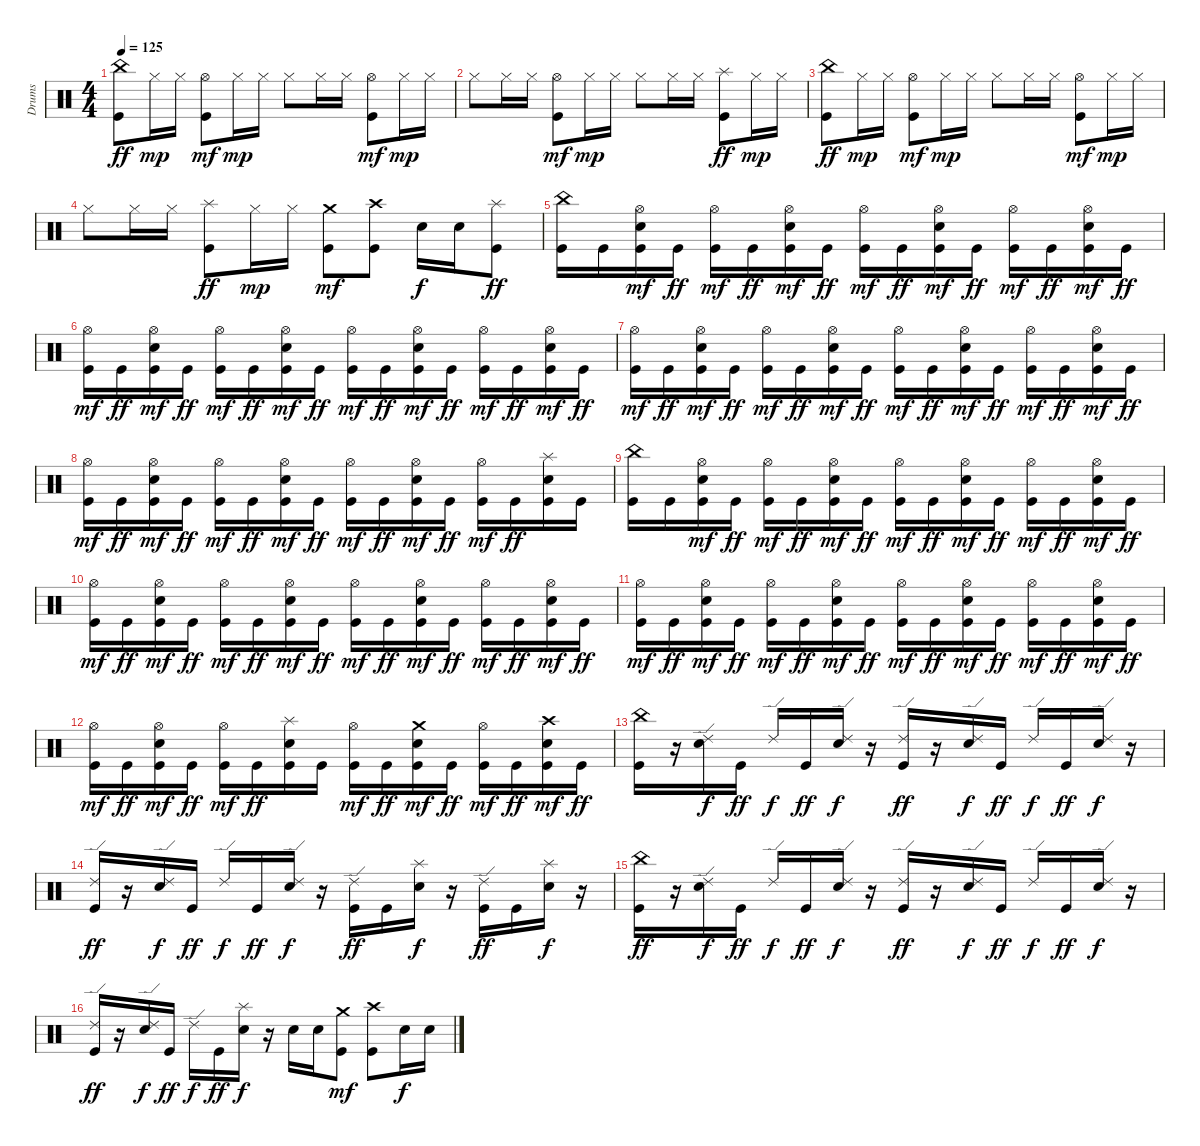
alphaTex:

\track ("Drums" "Drums") {instrument percussion}
\staff {score}
\articulation defaults
\ts (4 4)
\tempo 125
\clef neutral
\ks c
("Kick (hit)" "China (hit)").8{dy ff} "Hi-Hat (closed)".16{dy mp} "Hi-Hat (closed)".16 ("Kick (hit)" "Hi-Hat (open)").8{dy mf} "Hi-Hat (closed)".16{dy mp} "Hi-Hat (closed)".16 "Hi-Hat (closed)".8 "Hi-Hat (closed)".16 "Hi-Hat (closed)".16 ("Kick (hit)" "Hi-Hat (open)").8{dy mf} "Hi-Hat (closed)".16{dy mp} "Hi-Hat (closed)".16 |
"Hi-Hat (closed)".8 "Hi-Hat (closed)".16 "Hi-Hat (closed)".16 ("Kick (hit)" "Hi-Hat (open)").8{dy mf} "Hi-Hat (closed)".16{dy mp} "Hi-Hat (closed)".16 "Hi-Hat (closed)".8 "Hi-Hat (closed)".16 "Hi-Hat (closed)".16 ("Kick (hit)" "Splash (hit)").8{dy ff} "Hi-Hat (closed)".16{dy mp} "Hi-Hat (closed)".16 |
("Kick (hit)" "China (hit)").8{dy ff} "Hi-Hat (closed)".16{dy mp} "Hi-Hat (closed)".16 ("Kick (hit)" "Hi-Hat (open)").8{dy mf} "Hi-Hat (closed)".16{dy mp} "Hi-Hat (closed)".16 "Hi-Hat (closed)".8 "Hi-Hat (closed)".16 "Hi-Hat (closed)".16 ("Kick (hit)" "Hi-Hat (open)").8{dy mf} "Hi-Hat (closed)".16{dy mp} "Hi-Hat (closed)".16 |
"Hi-Hat (closed)".8 "Hi-Hat (closed)".16 "Hi-Hat (closed)".16 ("Kick (hit)" "Splash (hit)").8{dy ff} "Hi-Hat (closed)".16{dy mp} "Hi-Hat (closed)".16 ("Kick (hit)" "Crash medium (hit)").8{dy mf} ("Kick (hit)" "Crash high (hit)").8 "Electric Snare (hit)".16{dy f} "Electric Snare (hit)".16 ("Kick (hit)" "Splash (hit)").8{dy ff} |
("Kick (hit)" "China (hit)").16 "Kick (hit)".16 ("Kick (hit)" "Electric Snare (hit)" "Hi-Hat (open)").16{dy mf} "Kick (hit)".16{dy ff} ("Kick (hit)" "Hi-Hat (open)").16{dy mf} "Kick (hit)".16{dy ff} ("Kick (hit)" "Electric Snare (hit)" "Hi-Hat (open)").16{dy mf} "Kick (hit)".16{dy ff} ("Kick (hit)" "Hi-Hat (open)").16{dy mf} "Kick (hit)".16{dy ff} ("Kick (hit)" "Electric Snare (hit)" "Hi-Hat (open)").16{dy mf} "Kick (hit)".16{dy ff} ("Kick (hit)" "Hi-Hat (open)").16{dy mf} "Kick (hit)".16{dy ff} ("Kick (hit)" "Electric Snare (hit)" "Hi-Hat (open)").16{dy mf} "Kick (hit)".16{dy ff} |
("Kick (hit)" "Hi-Hat (open)").16{dy mf} "Kick (hit)".16{dy ff} ("Kick (hit)" "Electric Snare (hit)" "Hi-Hat (open)").16{dy mf} "Kick (hit)".16{dy ff} ("Kick (hit)" "Hi-Hat (open)").16{dy mf} "Kick (hit)".16{dy ff} ("Kick (hit)" "Electric Snare (hit)" "Hi-Hat (open)").16{dy mf} "Kick (hit)".16{dy ff} ("Kick (hit)" "Hi-Hat (open)").16{dy mf} "Kick (hit)".16{dy ff} ("Kick (hit)" "Electric Snare (hit)" "Hi-Hat (open)").16{dy mf} "Kick (hit)".16{dy ff} ("Kick (hit)" "Hi-Hat (open)").16{dy mf} "Kick (hit)".16{dy ff} ("Kick (hit)" "Electric Snare (hit)" "Hi-Hat (open)").16{dy mf} "Kick (hit)".16{dy ff} |
("Kick (hit)" "Hi-Hat (open)").16{dy mf} "Kick (hit)".16{dy ff} ("Kick (hit)" "Electric Snare (hit)" "Hi-Hat (open)").16{dy mf} "Kick (hit)".16{dy ff} ("Kick (hit)" "Hi-Hat (open)").16{dy mf} "Kick (hit)".16{dy ff} ("Kick (hit)" "Electric Snare (hit)" "Hi-Hat (open)").16{dy mf} "Kick (hit)".16{dy ff} ("Kick (hit)" "Hi-Hat (open)").16{dy mf} "Kick (hit)".16{dy ff} ("Kick (hit)" "Electric Snare (hit)" "Hi-Hat (open)").16{dy mf} "Kick (hit)".16{dy ff} ("Kick (hit)" "Hi-Hat (open)").16{dy mf} "Kick (hit)".16{dy ff} ("Kick (hit)" "Electric Snare (hit)" "Hi-Hat (open)").16{dy mf} "Kick (hit)".16{dy ff} |
("Kick (hit)" "Hi-Hat (open)").16{dy mf} "Kick (hit)".16{dy ff} ("Kick (hit)" "Electric Snare (hit)" "Hi-Hat (open)").16{dy mf} "Kick (hit)".16{dy ff} ("Kick (hit)" "Hi-Hat (open)").16{dy mf} "Kick (hit)".16{dy ff} ("Kick (hit)" "Electric Snare (hit)" "Hi-Hat (open)").16{dy mf} "Kick (hit)".16{dy ff} ("Kick (hit)" "Hi-Hat (open)").16{dy mf} "Kick (hit)".16{dy ff} ("Kick (hit)" "Electric Snare (hit)" "Hi-Hat (open)").16{dy mf} "Kick (hit)".16{dy ff} ("Kick (hit)" "Hi-Hat (open)").16{dy mf} "Kick (hit)".16{dy ff} ("Kick (hit)" "Electric Snare (hit)" "Splash (hit)").16 "Kick (hit)".16 |
("Kick (hit)" "China (hit)").16 "Kick (hit)".16 ("Kick (hit)" "Electric Snare (hit)" "Hi-Hat (open)").16{dy mf} "Kick (hit)".16{dy ff} ("Kick (hit)" "Hi-Hat (open)").16{dy mf} "Kick (hit)".16{dy ff} ("Kick (hit)" "Electric Snare (hit)" "Hi-Hat (open)").16{dy mf} "Kick (hit)".16{dy ff} ("Kick (hit)" "Hi-Hat (open)").16{dy mf} "Kick (hit)".16{dy ff} ("Kick (hit)" "Electric Snare (hit)" "Hi-Hat (open)").16{dy mf} "Kick (hit)".16{dy ff} ("Kick (hit)" "Hi-Hat (open)").16{dy mf} "Kick (hit)".16{dy ff} ("Kick (hit)" "Electric Snare (hit)" "Hi-Hat (open)").16{dy mf} "Kick (hit)".16{dy ff} |
("Kick (hit)" "Hi-Hat (open)").16{dy mf} "Kick (hit)".16{dy ff} ("Kick (hit)" "Electric Snare (hit)" "Hi-Hat (open)").16{dy mf} "Kick (hit)".16{dy ff} ("Kick (hit)" "Hi-Hat (open)").16{dy mf} "Kick (hit)".16{dy ff} ("Kick (hit)" "Electric Snare (hit)" "Hi-Hat (open)").16{dy mf} "Kick (hit)".16{dy ff} ("Kick (hit)" "Hi-Hat (open)").16{dy mf} "Kick (hit)".16{dy ff} ("Kick (hit)" "Electric Snare (hit)" "Hi-Hat (open)").16{dy mf} "Kick (hit)".16{dy ff} ("Kick (hit)" "Hi-Hat (open)").16{dy mf} "Kick (hit)".16{dy ff} ("Kick (hit)" "Electric Snare (hit)" "Hi-Hat (open)").16{dy mf} "Kick (hit)".16{dy ff} |
("Kick (hit)" "Hi-Hat (open)").16{dy mf} "Kick (hit)".16{dy ff} ("Kick (hit)" "Electric Snare (hit)" "Hi-Hat (open)").16{dy mf} "Kick (hit)".16{dy ff} ("Kick (hit)" "Hi-Hat (open)").16{dy mf} "Kick (hit)".16{dy ff} ("Kick (hit)" "Electric Snare (hit)" "Hi-Hat (open)").16{dy mf} "Kick (hit)".16{dy ff} ("Kick (hit)" "Hi-Hat (open)").16{dy mf} "Kick (hit)".16{dy ff} ("Kick (hit)" "Electric Snare (hit)" "Hi-Hat (open)").16{dy mf} "Kick (hit)".16{dy ff} ("Kick (hit)" "Hi-Hat (open)").16{dy mf} "Kick (hit)".16{dy ff} ("Kick (hit)" "Electric Snare (hit)" "Hi-Hat (open)").16{dy mf} "Kick (hit)".16{dy ff} |
("Kick (hit)" "Hi-Hat (open)").16{dy mf} "Kick (hit)".16{dy ff} ("Kick (hit)" "Electric Snare (hit)" "Hi-Hat (open)").16{dy mf} "Kick (hit)".16{dy ff} ("Kick (hit)" "Hi-Hat (open)").16{dy mf} "Kick (hit)".16{dy ff} ("Kick (hit)" "Electric Snare (hit)" "Splash (hit)").16 "Kick (hit)".16 ("Kick (hit)" "Hi-Hat (open)").16{dy mf} "Kick (hit)".16{dy ff} ("Kick (hit)" "Electric Snare (hit)" "Crash medium (hit)").16{dy mf} "Kick (hit)".16{dy ff} ("Kick (hit)" "Hi-Hat (open)").16{dy mf} "Kick (hit)".16{dy ff} ("Kick (hit)" "Electric Snare (hit)" "Crash high (hit)").16{dy mf} "Kick (hit)".16{dy ff} |
("Kick (hit)" "China (hit)").16 r.16 ("Electric Snare (hit)" "Ride (edge) 2").16{dy f} "Kick (hit)".16{dy ff} "Ride (edge) 2".16{dy f} "Kick (hit)".16{dy ff} ("Electric Snare (hit)" "Ride (edge) 2").16{dy f} r.16 ("Kick (hit)" "Ride (edge) 2").16{dy ff} r.16 ("Electric Snare (hit)" "Ride (edge) 2").16{dy f} "Kick (hit)".16{dy ff} "Ride (edge) 2".16{dy f} "Kick (hit)".16{dy ff} ("Electric Snare (hit)" "Ride (edge) 2").16{dy f} r.16 |
("Kick (hit)" "Ride (edge) 2").16{dy ff} r.16 ("Electric Snare (hit)" "Ride (edge) 2").16{dy f} "Kick (hit)".16{dy ff} "Ride (edge) 2".16{dy f} "Kick (hit)".16{dy ff} ("Electric Snare (hit)" "Ride (edge) 2").16{dy f} r.16 ("Kick (hit)" "Ride (edge) 2").16{dy ff} "Kick (hit)".16 ("Electric Snare (hit)" "Splash (hit)").16{dy f} r.16 ("Kick (hit)" "Ride (edge) 2").16{dy ff} "Kick (hit)".16 ("Electric Snare (hit)" "Splash (hit)").16{dy f} r.16 |
("Kick (hit)" "China (hit)").16{dy ff} r.16 ("Electric Snare (hit)" "Ride (edge) 2").16{dy f} "Kick (hit)".16{dy ff} "Ride (edge) 2".16{dy f} "Kick (hit)".16{dy ff} ("Electric Snare (hit)" "Ride (edge) 2").16{dy f} r.16 ("Kick (hit)" "Ride (edge) 2").16{dy ff} r.16 ("Electric Snare (hit)" "Ride (edge) 2").16{dy f} "Kick (hit)".16{dy ff} "Ride (edge) 2".16{dy f} "Kick (hit)".16{dy ff} ("Electric Snare (hit)" "Ride (edge) 2").16{dy f} r.16 |
("Kick (hit)" "Ride (edge) 2").16{dy ff} r.16 ("Electric Snare (hit)" "Ride (edge) 2").16{dy f} "Kick (hit)".16{dy ff} "Ride (edge) 2".16{dy f} "Kick (hit)".16{dy ff} ("Electric Snare (hit)" "Splash (hit)").16{dy f} r.16 "Electric Snare (hit)".16 "Electric Snare (hit)".16 ("Kick (hit)" "Crash medium (hit)").8{dy mf} ("Kick (hit)" "Crash high (hit)").8 "Electric Snare (hit)".16{dy f} "Electric Snare (hit)".16
